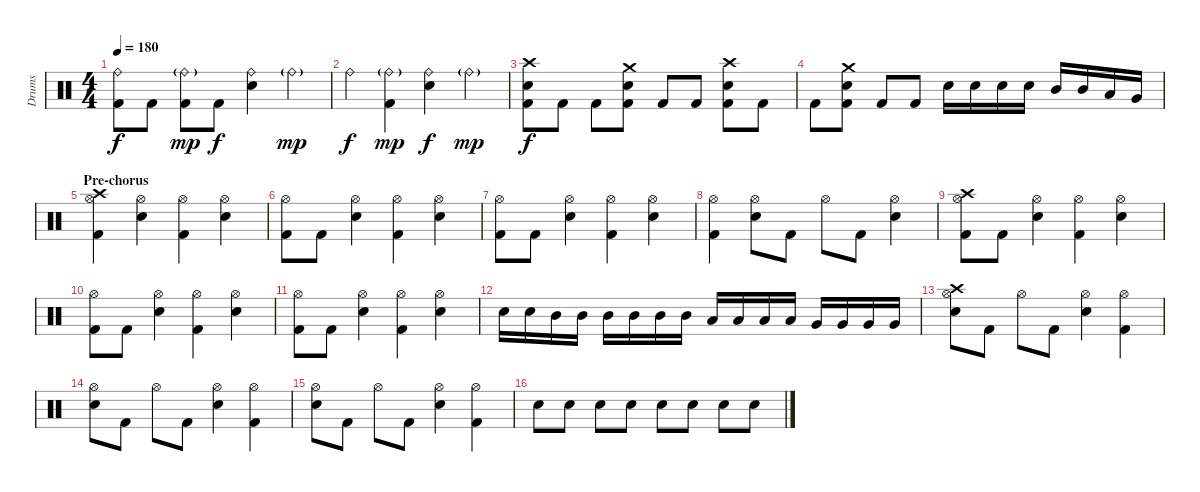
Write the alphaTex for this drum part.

\track ("Drums" "Drums") {instrument percussion}
\staff {score}
\articulation defaults
\ts (4 4)
\tempo 180
\clef neutral
\ks c
("Ride (bell)" "Kick (hit) 2").8{dy f} "Kick (hit) 2".8 ("Ride (bell)"{g} "Kick (hit) 2").8{dy mp} "Kick (hit) 2".8{dy f} ("Ride (bell)" "Electric Snare (hit)").4 "Ride (bell)"{g}.4{dy mp} |
"Ride (bell)".4{dy f} ("Ride (bell)"{g} "Kick (hit) 2").4{dy mp} ("Ride (bell)" "Electric Snare (hit)").4{dy f} "Ride (bell)"{g}.4{dy mp} |
("Kick (hit) 2" "Electric Snare (hit)" "Crash high (hit)").8{dy f} "Kick (hit) 2".8 "Kick (hit) 2".8 ("Kick (hit) 2" "Electric Snare (hit)" "Crash medium (hit)").8 "Kick (hit) 2".8 "Kick (hit) 2".8 ("Kick (hit) 2" "Electric Snare (hit)" "Crash high (hit)").8 "Kick (hit) 2".8 |
"Kick (hit) 2".8 ("Kick (hit) 2" "Electric Snare (hit)" "Crash medium (hit)").8 "Kick (hit) 2".8 "Kick (hit) 2".8 "Electric Snare (hit)".16 "Electric Snare (hit)".16 "Electric Snare (hit)".16 "Electric Snare (hit)".16 "Mid Tom (hit)".16 "Mid Tom (hit)".16 "Low Tom (hit)".16 "Very Low Tom (hit)".16 |
\section ("" "Pre-chorus")
("Hi-Hat (open)" "Kick (hit) 2" "Crash high (hit)").4 ("Hi-Hat (open)" "Electric Snare (hit)").4 ("Hi-Hat (open)" "Kick (hit) 2").4 ("Hi-Hat (open)" "Electric Snare (hit)").4 |
("Hi-Hat (open)" "Kick (hit) 2").8 "Kick (hit) 2".8 ("Hi-Hat (open)" "Electric Snare (hit)").4 ("Hi-Hat (open)" "Kick (hit) 2").4 ("Hi-Hat (open)" "Electric Snare (hit)").4 |
("Hi-Hat (open)" "Kick (hit) 2").8 "Kick (hit) 2".8 ("Hi-Hat (open)" "Electric Snare (hit)").4 ("Hi-Hat (open)" "Kick (hit) 2").4 ("Hi-Hat (open)" "Electric Snare (hit)").4 |
("Hi-Hat (open)" "Kick (hit) 2").4 ("Hi-Hat (open)" "Electric Snare (hit)").8 "Kick (hit) 2".8 "Hi-Hat (open)".8 "Kick (hit) 2".8 ("Hi-Hat (open)" "Electric Snare (hit)").4 |
("Hi-Hat (open)" "Kick (hit) 2" "Crash high (hit)").8 "Kick (hit) 2".8 ("Hi-Hat (open)" "Electric Snare (hit)").4 ("Hi-Hat (open)" "Kick (hit) 2").4 ("Hi-Hat (open)" "Electric Snare (hit)").4 |
("Hi-Hat (open)" "Kick (hit) 2").8 "Kick (hit) 2".8 ("Hi-Hat (open)" "Electric Snare (hit)").4 ("Hi-Hat (open)" "Kick (hit) 2").4 ("Hi-Hat (open)" "Electric Snare (hit)").4 |
("Hi-Hat (open)" "Kick (hit) 2").8 "Kick (hit) 2".8 ("Hi-Hat (open)" "Electric Snare (hit)").4 ("Hi-Hat (open)" "Kick (hit) 2").4 ("Hi-Hat (open)" "Electric Snare (hit)").4 |
"Electric Snare (hit)".16 "Electric Snare (hit)".16 "Mid Tom (hit)".16 "Mid Tom (hit)".16 "Mid Tom (hit)".16 "Mid Tom (hit)".16 "Mid Tom (hit)".16 "Mid Tom (hit)".16 "Low Tom (hit)".16 "Low Tom (hit)".16 "Low Tom (hit)".16 "Low Tom (hit)".16 "Very Low Tom (hit)".16 "Very Low Tom (hit)".16 "Very Low Tom (hit)".16 "Very Low Tom (hit)".16 |
("Hi-Hat (open)" "Electric Snare (hit)" "Crash high (hit)").8 "Kick (hit) 2".8 "Hi-Hat (open)".8 "Kick (hit) 2".8 ("Hi-Hat (open)" "Electric Snare (hit)").4 ("Hi-Hat (open)" "Kick (hit) 2").4 |
("Hi-Hat (open)" "Electric Snare (hit)").8 "Kick (hit) 2".8 "Hi-Hat (open)".8 "Kick (hit) 2".8 ("Hi-Hat (open)" "Electric Snare (hit)").4 ("Hi-Hat (open)" "Kick (hit) 2").4 |
("Hi-Hat (open)" "Electric Snare (hit)").8 "Kick (hit) 2".8 "Hi-Hat (open)".8 "Kick (hit) 2".8 ("Hi-Hat (open)" "Electric Snare (hit)").4 ("Hi-Hat (open)" "Kick (hit) 2").4 |
"Electric Snare (hit)".8 "Electric Snare (hit)".8 "Electric Snare (hit)".8 "Electric Snare (hit)".8 "Electric Snare (hit)".8 "Electric Snare (hit)".8 "Electric Snare (hit)".8 "Electric Snare (hit)".8
